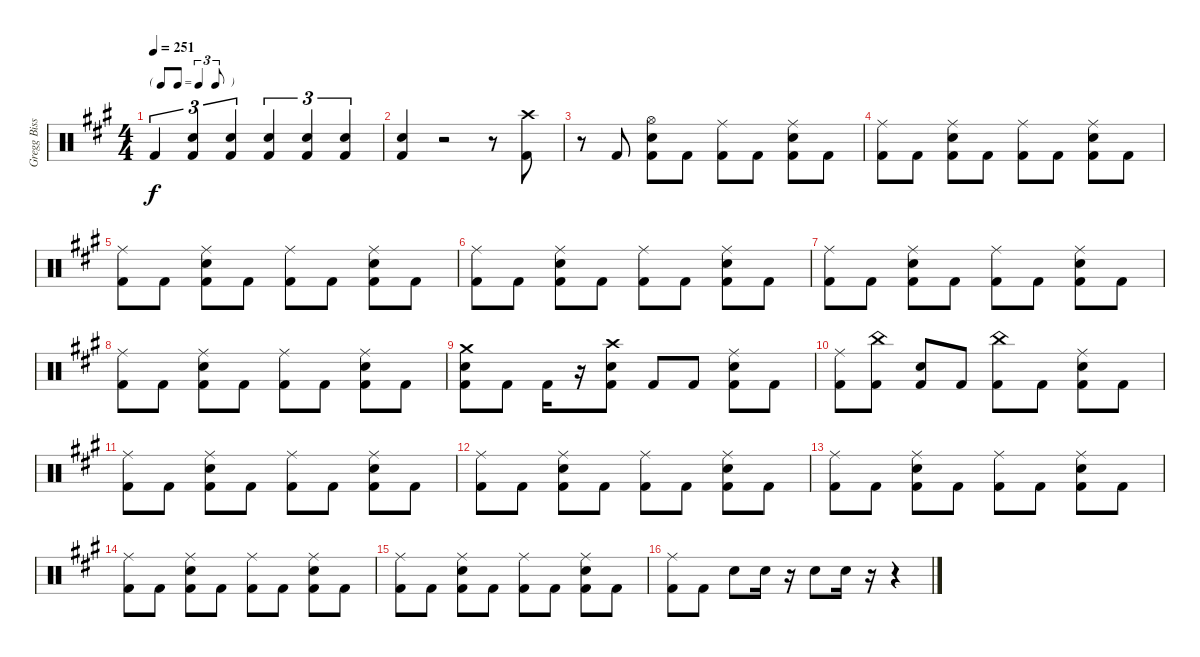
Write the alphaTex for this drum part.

\track ("Gregg Bissonette" "Gregg Biss") {instrument percussion}
\staff {score}
\articulation defaults
\ts (4 4)
\tf triplet8th
\tempo 251
\clef neutral
\ks f#minor "Kick (hit) 2".4{tu (3 2) dy f}
("Electric Snare (hit)" "Kick (hit) 2").4{tu (3 2)} ("Electric Snare (hit)" "Kick (hit) 2").4{tu (3 2)} ("Electric Snare (hit)" "Kick (hit) 2").4{tu (3 2)} ("Electric Snare (hit)" "Kick (hit) 2").4{tu (3 2)} ("Electric Snare (hit)" "Kick (hit) 2").4{tu (3 2)} |
("Electric Snare (hit)" "Kick (hit) 2").4 r.2 r.8 ("Crash high (hit)" "Kick (hit) 2").8 |
r.8 "Kick (hit) 2".8 ("Hi-Hat (open)" "Electric Snare (hit)" "Kick (hit) 2").8 "Kick (hit) 2".8 ("Ride (middle)" "Kick (hit) 2").8 "Kick (hit) 2".8 ("Ride (middle)" "Electric Snare (hit)" "Kick (hit) 2").8 "Kick (hit) 2".8 |
("Ride (middle)" "Kick (hit) 2").8 "Kick (hit) 2".8 ("Ride (middle)" "Electric Snare (hit)" "Kick (hit) 2").8 "Kick (hit) 2".8 ("Ride (middle)" "Kick (hit) 2").8 "Kick (hit) 2".8 ("Ride (middle)" "Electric Snare (hit)" "Kick (hit) 2").8 "Kick (hit) 2".8 |
("Ride (middle)" "Kick (hit) 2").8 "Kick (hit) 2".8 ("Ride (middle)" "Electric Snare (hit)" "Kick (hit) 2").8 "Kick (hit) 2".8 ("Ride (middle)" "Kick (hit) 2").8 "Kick (hit) 2".8 ("Ride (middle)" "Electric Snare (hit)" "Kick (hit) 2").8 "Kick (hit) 2".8 |
("Ride (middle)" "Kick (hit) 2").8 "Kick (hit) 2".8 ("Ride (middle)" "Electric Snare (hit)" "Kick (hit) 2").8 "Kick (hit) 2".8 ("Ride (middle)" "Kick (hit) 2").8 "Kick (hit) 2".8 ("Ride (middle)" "Electric Snare (hit)" "Kick (hit) 2").8 "Kick (hit) 2".8 |
("Ride (middle)" "Kick (hit) 2").8 "Kick (hit) 2".8 ("Ride (middle)" "Electric Snare (hit)" "Kick (hit) 2").8 "Kick (hit) 2".8 ("Ride (middle)" "Kick (hit) 2").8 "Kick (hit) 2".8 ("Ride (middle)" "Electric Snare (hit)" "Kick (hit) 2").8 "Kick (hit) 2".8 |
("Ride (middle)" "Kick (hit) 2").8 "Kick (hit) 2".8 ("Ride (middle)" "Electric Snare (hit)" "Kick (hit) 2").8 "Kick (hit) 2".8 ("Ride (middle)" "Kick (hit) 2").8 "Kick (hit) 2".8 ("Ride (middle)" "Electric Snare (hit)" "Kick (hit) 2").8 "Kick (hit) 2".8 |
("Crash medium (hit)" "Electric Snare (hit)" "Kick (hit) 2").8 "Kick (hit) 2".8 "Kick (hit) 2".16 r.16 ("Crash high (hit)" "Electric Snare (hit)" "Kick (hit) 2").8 "Kick (hit) 2".8 "Kick (hit) 2".8 ("Ride (middle)" "Electric Snare (hit)" "Kick (hit) 2").8 "Kick (hit) 2".8 |
("Ride (middle)" "Kick (hit) 2").8 ("China (hit)" "Kick (hit) 2").8 ("Electric Snare (hit)" "Kick (hit) 2").8 "Kick (hit) 2".8 ("China (hit)" "Kick (hit) 2").8 "Kick (hit) 2".8 ("Ride (middle)" "Electric Snare (hit)" "Kick (hit) 2").8 "Kick (hit) 2".8 |
("Ride (middle)" "Kick (hit) 2").8 "Kick (hit) 2".8 ("Ride (middle)" "Electric Snare (hit)" "Kick (hit) 2").8 "Kick (hit) 2".8 ("Ride (middle)" "Kick (hit) 2").8 "Kick (hit) 2".8 ("Ride (middle)" "Electric Snare (hit)" "Kick (hit) 2").8 "Kick (hit) 2".8 |
("Ride (middle)" "Kick (hit) 2").8 "Kick (hit) 2".8 ("Ride (middle)" "Electric Snare (hit)" "Kick (hit) 2").8 "Kick (hit) 2".8 ("Ride (middle)" "Kick (hit) 2").8 "Kick (hit) 2".8 ("Ride (middle)" "Electric Snare (hit)" "Kick (hit) 2").8 "Kick (hit) 2".8 |
("Ride (middle)" "Kick (hit) 2").8 "Kick (hit) 2".8 ("Ride (middle)" "Electric Snare (hit)" "Kick (hit) 2").8 "Kick (hit) 2".8 ("Ride (middle)" "Kick (hit) 2").8 "Kick (hit) 2".8 ("Ride (middle)" "Electric Snare (hit)" "Kick (hit) 2").8 "Kick (hit) 2".8 |
("Ride (middle)" "Kick (hit) 2").8 "Kick (hit) 2".8 ("Ride (middle)" "Electric Snare (hit)" "Kick (hit) 2").8 "Kick (hit) 2".8 ("Ride (middle)" "Kick (hit) 2").8 "Kick (hit) 2".8 ("Ride (middle)" "Electric Snare (hit)" "Kick (hit) 2").8 "Kick (hit) 2".8 |
("Ride (middle)" "Kick (hit) 2").8 "Kick (hit) 2".8 ("Ride (middle)" "Electric Snare (hit)" "Kick (hit) 2").8 "Kick (hit) 2".8 ("Ride (middle)" "Kick (hit) 2").8 "Kick (hit) 2".8 ("Ride (middle)" "Electric Snare (hit)" "Kick (hit) 2").8 "Kick (hit) 2".8 |
("Ride (middle)" "Kick (hit) 2").8 "Kick (hit) 2".8 "Electric Snare (hit)".8 "Electric Snare (hit)".16 r.16 "Electric Snare (hit)".8 "Electric Snare (hit)".16 r.16 r.4
